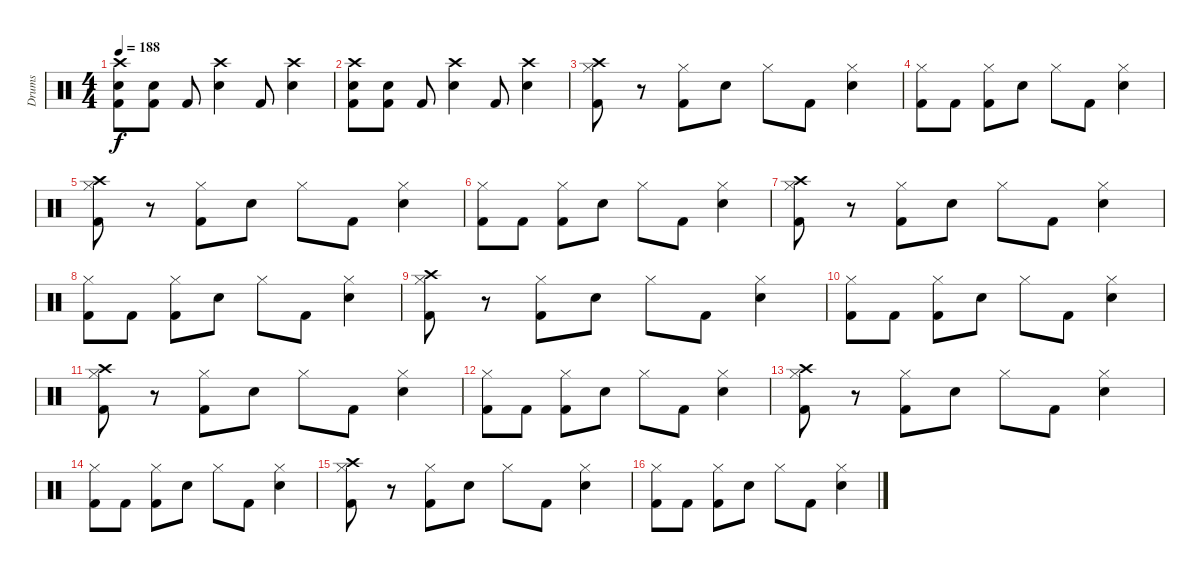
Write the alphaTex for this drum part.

\track ("Drums" "Drums") {instrument percussion}
\staff {score}
\articulation defaults
\ts (4 4)
\tempo 188
\clef neutral
\ks c
("Crash high (hit)" "Snare (hit) 2" "Kick (hit) 2").8{dy f} ("Snare (hit) 2" "Kick (hit) 2").8 "Kick (hit) 2".8 ("Crash high (hit)" "Snare (hit) 2").4 "Kick (hit) 2".8 ("Crash high (hit)" "Snare (hit) 2").4 |
("Crash high (hit)" "Snare (hit) 2" "Kick (hit) 2").8 ("Snare (hit) 2" "Kick (hit) 2").8 "Kick (hit) 2".8 ("Crash high (hit)" "Snare (hit) 2").4 "Kick (hit) 2".8 ("Crash high (hit)" "Snare (hit) 2").4 |
("Crash high (hit)" "Hi-Hat (closed)" "Kick (hit) 2").8 r.8 ("Hi-Hat (closed)" "Kick (hit) 2").8 "Snare (hit) 2".8 "Hi-Hat (closed)".8 "Kick (hit) 2".8 ("Hi-Hat (closed)" "Snare (hit) 2").4 |
("Hi-Hat (closed)" "Kick (hit) 2").8 "Kick (hit) 2".8 ("Hi-Hat (closed)" "Kick (hit) 2").8 "Snare (hit) 2".8 "Hi-Hat (closed)".8 "Kick (hit) 2".8 ("Hi-Hat (closed)" "Snare (hit) 2").4 |
("Crash high (hit)" "Hi-Hat (closed)" "Kick (hit) 2").8 r.8 ("Hi-Hat (closed)" "Kick (hit) 2").8 "Snare (hit) 2".8 "Hi-Hat (closed)".8 "Kick (hit) 2".8 ("Hi-Hat (closed)" "Snare (hit) 2").4 |
("Hi-Hat (closed)" "Kick (hit) 2").8 "Kick (hit) 2".8 ("Hi-Hat (closed)" "Kick (hit) 2").8 "Snare (hit) 2".8 "Hi-Hat (closed)".8 "Kick (hit) 2".8 ("Hi-Hat (closed)" "Snare (hit) 2").4 |
("Crash high (hit)" "Hi-Hat (closed)" "Kick (hit) 2").8 r.8 ("Hi-Hat (closed)" "Kick (hit) 2").8 "Snare (hit) 2".8 "Hi-Hat (closed)".8 "Kick (hit) 2".8 ("Hi-Hat (closed)" "Snare (hit) 2").4 |
("Hi-Hat (closed)" "Kick (hit) 2").8 "Kick (hit) 2".8 ("Hi-Hat (closed)" "Kick (hit) 2").8 "Snare (hit) 2".8 "Hi-Hat (closed)".8 "Kick (hit) 2".8 ("Hi-Hat (closed)" "Snare (hit) 2").4 |
("Crash high (hit)" "Hi-Hat (closed)" "Kick (hit) 2").8 r.8 ("Hi-Hat (closed)" "Kick (hit) 2").8 "Snare (hit) 2".8 "Hi-Hat (closed)".8 "Kick (hit) 2".8 ("Hi-Hat (closed)" "Snare (hit) 2").4 |
("Hi-Hat (closed)" "Kick (hit) 2").8 "Kick (hit) 2".8 ("Hi-Hat (closed)" "Kick (hit) 2").8 "Snare (hit) 2".8 "Hi-Hat (closed)".8 "Kick (hit) 2".8 ("Hi-Hat (closed)" "Snare (hit) 2").4 |
("Crash high (hit)" "Hi-Hat (closed)" "Kick (hit) 2").8 r.8 ("Hi-Hat (closed)" "Kick (hit) 2").8 "Snare (hit) 2".8 "Hi-Hat (closed)".8 "Kick (hit) 2".8 ("Hi-Hat (closed)" "Snare (hit) 2").4 |
("Hi-Hat (closed)" "Kick (hit) 2").8 "Kick (hit) 2".8 ("Hi-Hat (closed)" "Kick (hit) 2").8 "Snare (hit) 2".8 "Hi-Hat (closed)".8 "Kick (hit) 2".8 ("Hi-Hat (closed)" "Snare (hit) 2").4 |
("Crash high (hit)" "Hi-Hat (closed)" "Kick (hit) 2").8 r.8 ("Hi-Hat (closed)" "Kick (hit) 2").8 "Snare (hit) 2".8 "Hi-Hat (closed)".8 "Kick (hit) 2".8 ("Hi-Hat (closed)" "Snare (hit) 2").4 |
("Hi-Hat (closed)" "Kick (hit) 2").8 "Kick (hit) 2".8 ("Hi-Hat (closed)" "Kick (hit) 2").8 "Snare (hit) 2".8 "Hi-Hat (closed)".8 "Kick (hit) 2".8 ("Hi-Hat (closed)" "Snare (hit) 2").4 |
("Crash high (hit)" "Hi-Hat (closed)" "Kick (hit) 2").8 r.8 ("Hi-Hat (closed)" "Kick (hit) 2").8 "Snare (hit) 2".8 "Hi-Hat (closed)".8 "Kick (hit) 2".8 ("Hi-Hat (closed)" "Snare (hit) 2").4 |
("Hi-Hat (closed)" "Kick (hit) 2").8 "Kick (hit) 2".8 ("Hi-Hat (closed)" "Kick (hit) 2").8 "Snare (hit) 2".8 "Hi-Hat (closed)".8 "Kick (hit) 2".8 ("Hi-Hat (closed)" "Snare (hit) 2").4
